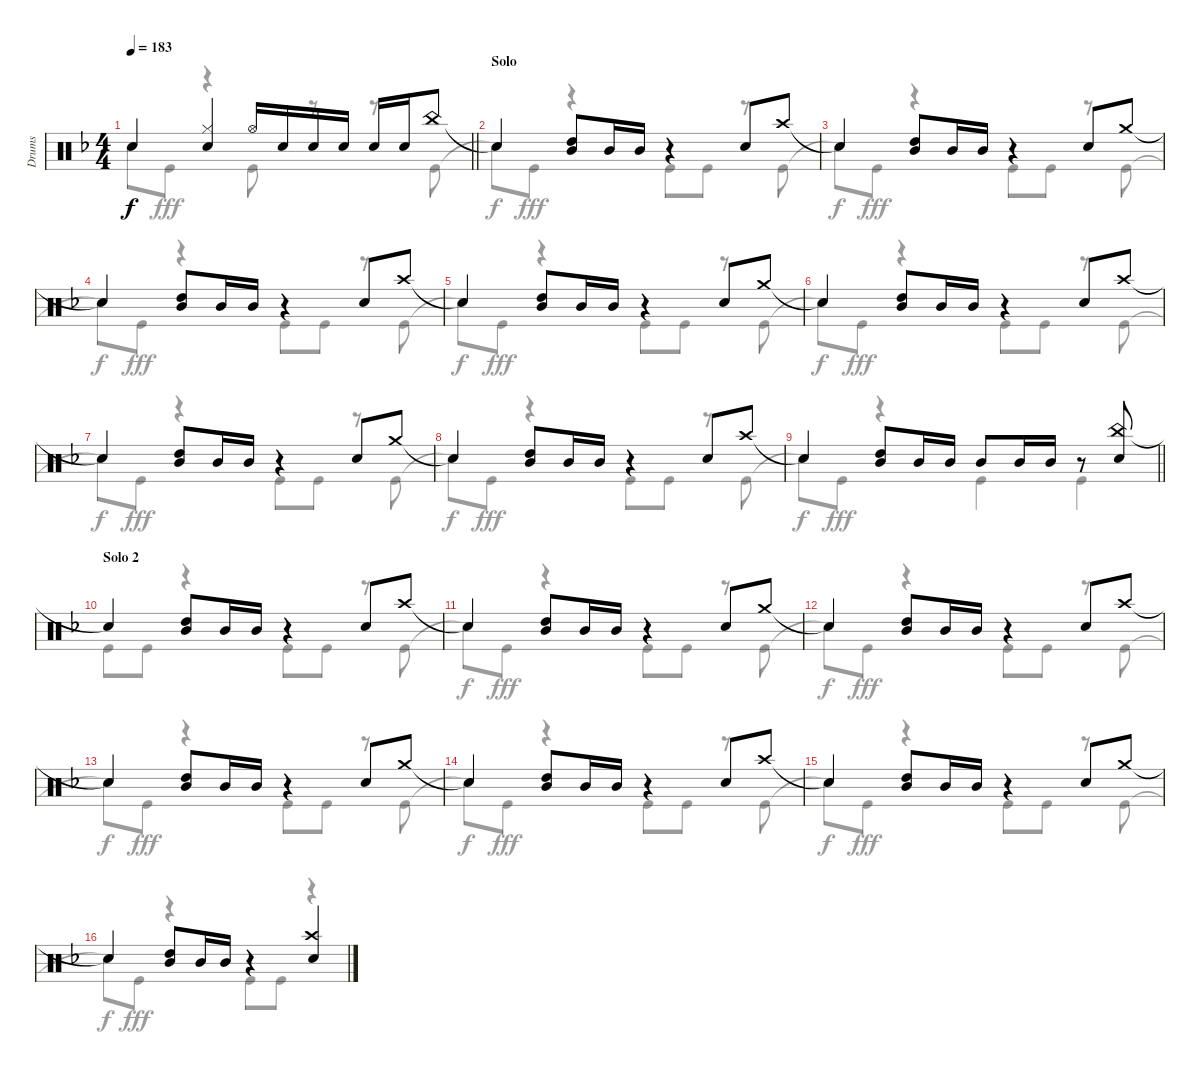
\track ("Drums" "Drums") {instrument percussion}
\staff {score}
\articulation defaults
\voice
\ts (4 4)
\tempo 183
\clef neutral
\barLineRight lightlight
\ks f "Snare (hit)"{t}.4{dy f}
("Hi-Hat (closed)" "Snare (hit) 2").4 "Hi-Hat (open)".16 "Snare (hit) 2".16 "Snare (hit) 2".16 "Snare (hit) 2".16 "Snare (hit) 2".16 "Snare (hit) 2".16 "China (hit)".8 |
\section ("" "Solo")
"Snare (hit)"{t}.4 ("High Tom (hit)" "Mid Tom (hit)").8 "Mid Tom (hit)".16 "Mid Tom (hit)".16 r.4 "Snare (hit) 2".8 "Crash high (hit)".8 |
"Snare (hit)"{t}.4 ("High Tom (hit)" "Mid Tom (hit)").8 "Mid Tom (hit)".16 "Mid Tom (hit)".16 r.4 "Snare (hit) 2".8 "Crash medium (hit)".8 |
"Snare (hit)"{t}.4 ("High Tom (hit)" "Mid Tom (hit)").8 "Mid Tom (hit)".16 "Mid Tom (hit)".16 r.4 "Snare (hit) 2".8 "Crash high (hit)".8 |
"Snare (hit)"{t}.4 ("High Tom (hit)" "Mid Tom (hit)").8 "Mid Tom (hit)".16 "Mid Tom (hit)".16 r.4 "Snare (hit) 2".8 "Crash medium (hit)".8 |
"Snare (hit)"{t}.4 ("High Tom (hit)" "Mid Tom (hit)").8 "Mid Tom (hit)".16 "Mid Tom (hit)".16 r.4 "Snare (hit) 2".8 "Crash high (hit)".8 |
"Snare (hit)"{t}.4 ("High Tom (hit)" "Mid Tom (hit)").8 "Mid Tom (hit)".16 "Mid Tom (hit)".16 r.4 "Snare (hit) 2".8 "Crash medium (hit)".8 |
"Snare (hit)"{t}.4 ("High Tom (hit)" "Mid Tom (hit)").8 "Mid Tom (hit)".16 "Mid Tom (hit)".16 r.4 "Snare (hit) 2".8 "Crash high (hit)".8 |
\barLineRight lightlight "Snare (hit)"{t}.4
("High Tom (hit)" "Mid Tom (hit)").8 "Mid Tom (hit)".16 "Mid Tom (hit)".16 "Mid Tom (hit)".8 "Mid Tom (hit)".16 "Mid Tom (hit)".16 r.8 ("China (hit)" "Snare (hit) 2").8 |
\section ("" "Solo 2")
"Snare (hit)"{t}.4 ("High Tom (hit)" "Mid Tom (hit)").8 "Mid Tom (hit)".16 "Mid Tom (hit)".16 r.4 "Snare (hit) 2".8 "Crash high (hit)".8 |
"Snare (hit)"{t}.4 ("High Tom (hit)" "Mid Tom (hit)").8 "Mid Tom (hit)".16 "Mid Tom (hit)".16 r.4 "Snare (hit) 2".8 "Crash medium (hit)".8 |
"Snare (hit)"{t}.4 ("High Tom (hit)" "Mid Tom (hit)").8 "Mid Tom (hit)".16 "Mid Tom (hit)".16 r.4 "Snare (hit) 2".8 "Crash high (hit)".8 |
"Snare (hit)"{t}.4 ("High Tom (hit)" "Mid Tom (hit)").8 "Mid Tom (hit)".16 "Mid Tom (hit)".16 r.4 "Snare (hit) 2".8 "Crash medium (hit)".8 |
"Snare (hit)"{t}.4 ("High Tom (hit)" "Mid Tom (hit)").8 "Mid Tom (hit)".16 "Mid Tom (hit)".16 r.4 "Snare (hit) 2".8 "Crash high (hit)".8 |
"Snare (hit)"{t}.4 ("High Tom (hit)" "Mid Tom (hit)").8 "Mid Tom (hit)".16 "Mid Tom (hit)".16 r.4 "Snare (hit) 2".8 "Crash medium (hit)".8 |
"Snare (hit)"{t}.4 ("High Tom (hit)" "Mid Tom (hit)").8 "Mid Tom (hit)".16 "Mid Tom (hit)".16 r.4 ("Crash high (hit)" "Snare (hit) 2").4
\voice
\clef neutral
\ottava regular
\simile none
\barLineRight lightlight
\ks f "Snare (hit)"{t}.8{dy f} "Kick (hit)".8{dy fff}
r.4 "Kick (hit)".8 r.8 r.8 "Kick (hit)".8 |
"Snare (hit)"{t}.8{dy f} "Kick (hit)".8{dy fff} r.4 "Kick (hit)".8 "Kick (hit)".8 r.8 "Kick (hit)".8 |
"Snare (hit)"{t}.8{dy f} "Kick (hit)".8{dy fff} r.4 "Kick (hit)".8 "Kick (hit)".8 r.8 "Kick (hit)".8 |
"Snare (hit)"{t}.8{dy f} "Kick (hit)".8{dy fff} r.4 "Kick (hit)".8 "Kick (hit)".8 r.8 "Kick (hit)".8 |
"Snare (hit)"{t}.8{dy f} "Kick (hit)".8{dy fff} r.4 "Kick (hit)".8 "Kick (hit)".8 r.8 "Kick (hit)".8 |
"Snare (hit)"{t}.8{dy f} "Kick (hit)".8{dy fff} r.4 "Kick (hit)".8 "Kick (hit)".8 r.8 "Kick (hit)".8 |
"Snare (hit)"{t}.8{dy f} "Kick (hit)".8{dy fff} r.4 "Kick (hit)".8 "Kick (hit)".8 r.8 "Kick (hit)".8 |
"Snare (hit)"{t}.8{dy f} "Kick (hit)".8{dy fff} r.4 "Kick (hit)".8 "Kick (hit)".8 r.8 "Kick (hit)".8 |
\barLineRight lightlight "Snare (hit)"{t}.8{dy f} "Kick (hit)".8{dy fff}
r.4 "Kick (hit)".4 "Kick (hit)".4 |
"Kick (hit)".8 "Kick (hit)".8 r.4 "Kick (hit)".8 "Kick (hit)".8 r.8 "Kick (hit)".8 |
"Snare (hit)"{t}.8{dy f} "Kick (hit)".8{dy fff} r.4 "Kick (hit)".8 "Kick (hit)".8 r.8 "Kick (hit)".8 |
"Snare (hit)"{t}.8{dy f} "Kick (hit)".8{dy fff} r.4 "Kick (hit)".8 "Kick (hit)".8 r.8 "Kick (hit)".8 |
"Snare (hit)"{t}.8{dy f} "Kick (hit)".8{dy fff} r.4 "Kick (hit)".8 "Kick (hit)".8 r.8 "Kick (hit)".8 |
"Snare (hit)"{t}.8{dy f} "Kick (hit)".8{dy fff} r.4 "Kick (hit)".8 "Kick (hit)".8 r.8 "Kick (hit)".8 |
"Snare (hit)"{t}.8{dy f} "Kick (hit)".8{dy fff} r.4 "Kick (hit)".8 "Kick (hit)".8 r.8 "Kick (hit)".8 |
"Snare (hit)"{t}.8{dy f} "Kick (hit)".8{dy fff} r.4 "Kick (hit)".8 "Kick (hit)".8 r.4
